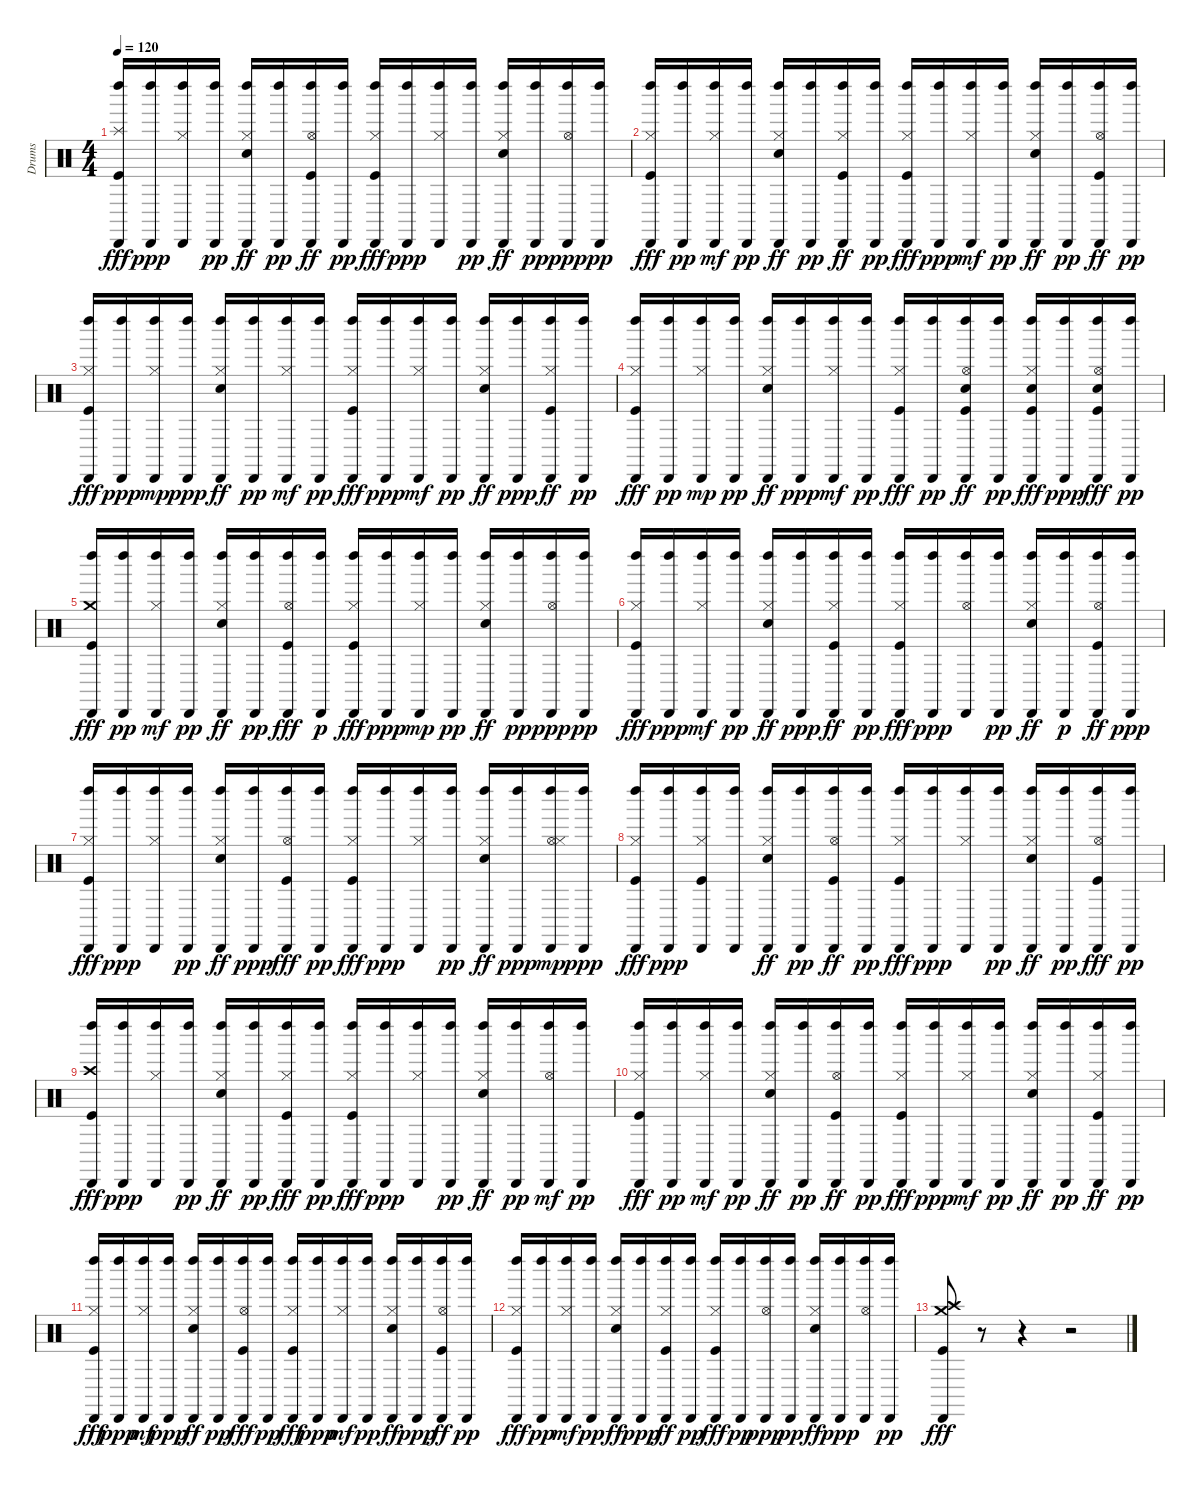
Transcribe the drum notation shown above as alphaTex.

\track ("Drums" "Drums") {instrument percussion}
\staff {score}
\articulation defaults
\ts (4 4)
\tempo 120
\clef neutral
\ks c
("Left Maraca (hit)" "Cabasa (hit)" "Splash (hit)" "Kick (hit)").16{dy fff} ("Left Maraca (hit)" "Cabasa (hit)").16{dy ppp} ("Left Maraca (hit)" "Cabasa (hit)" "Hi-Hat (closed)").16 ("Left Maraca (hit)" "Cabasa (hit)").16{dy pp} ("Left Maraca (hit)" "Cabasa (hit)" "Hi-Hat (closed)" "Electric Snare (hit)").16{dy ff} ("Left Maraca (hit)" "Cabasa (hit)").16{dy pp} ("Left Maraca (hit)" "Cabasa (hit)" "Hi-Hat (open)" "Kick (hit)").16{dy ff} ("Left Maraca (hit)" "Cabasa (hit)").16{dy pp} ("Left Maraca (hit)" "Cabasa (hit)" "Hi-Hat (closed)" "Kick (hit)").16{dy fff} ("Left Maraca (hit)" "Cabasa (hit)").16{dy ppp} ("Left Maraca (hit)" "Cabasa (hit)" "Hi-Hat (closed)").16 ("Left Maraca (hit)" "Cabasa (hit)").16{dy pp} ("Left Maraca (hit)" "Cabasa (hit)" "Hi-Hat (closed)" "Electric Snare (hit)").16{dy ff} ("Left Maraca (hit)" "Cabasa (hit)").16{dy pp} ("Left Maraca (hit)" "Cabasa (hit)" "Hi-Hat (open)").16{dy ppp} ("Left Maraca (hit)" "Cabasa (hit)").16{dy pp} |
("Left Maraca (hit)" "Cabasa (hit)" "Hi-Hat (closed)" "Kick (hit)").16{dy fff} ("Left Maraca (hit)" "Cabasa (hit)").16{dy pp} ("Left Maraca (hit)" "Cabasa (hit)" "Hi-Hat (closed)").16{dy mf} ("Left Maraca (hit)" "Cabasa (hit)").16{dy pp} ("Left Maraca (hit)" "Cabasa (hit)" "Hi-Hat (closed)" "Electric Snare (hit)").16{dy ff} ("Left Maraca (hit)" "Cabasa (hit)").16{dy pp} ("Left Maraca (hit)" "Cabasa (hit)" "Hi-Hat (closed)" "Kick (hit)").16{dy ff} ("Left Maraca (hit)" "Cabasa (hit)").16{dy pp} ("Left Maraca (hit)" "Cabasa (hit)" "Hi-Hat (closed)" "Kick (hit)").16{dy fff} ("Left Maraca (hit)" "Cabasa (hit)").16{dy ppp} ("Left Maraca (hit)" "Cabasa (hit)" "Hi-Hat (closed)").16{dy mf} ("Left Maraca (hit)" "Cabasa (hit)").16{dy pp} ("Left Maraca (hit)" "Cabasa (hit)" "Hi-Hat (closed)" "Electric Snare (hit)").16{dy ff} ("Left Maraca (hit)" "Cabasa (hit)").16{dy pp} ("Left Maraca (hit)" "Cabasa (hit)" "Hi-Hat (open)" "Kick (hit)").16{dy ff} ("Left Maraca (hit)" "Cabasa (hit)").16{dy pp} |
("Left Maraca (hit)" "Cabasa (hit)" "Hi-Hat (closed)" "Kick (hit)").16{dy fff} ("Left Maraca (hit)" "Cabasa (hit)").16{dy ppp} ("Left Maraca (hit)" "Cabasa (hit)" "Hi-Hat (closed)").16{dy mp} ("Left Maraca (hit)" "Cabasa (hit)").16{dy ppp} ("Left Maraca (hit)" "Cabasa (hit)" "Hi-Hat (closed)" "Electric Snare (hit)").16{dy ff} ("Left Maraca (hit)" "Cabasa (hit)").16{dy pp} ("Left Maraca (hit)" "Cabasa (hit)" "Hi-Hat (closed)").16{dy mf} ("Left Maraca (hit)" "Cabasa (hit)").16{dy pp} ("Left Maraca (hit)" "Cabasa (hit)" "Hi-Hat (closed)" "Kick (hit)").16{dy fff} ("Left Maraca (hit)" "Cabasa (hit)").16{dy ppp} ("Left Maraca (hit)" "Cabasa (hit)" "Hi-Hat (closed)").16{dy mf} ("Left Maraca (hit)" "Cabasa (hit)").16{dy pp} ("Left Maraca (hit)" "Cabasa (hit)" "Hi-Hat (closed)" "Electric Snare (hit)").16{dy ff} ("Left Maraca (hit)" "Cabasa (hit)").16{dy ppp} ("Left Maraca (hit)" "Cabasa (hit)" "Hi-Hat (closed)" "Kick (hit)").16{dy ff} ("Left Maraca (hit)" "Cabasa (hit)").16{dy pp} |
("Left Maraca (hit)" "Cabasa (hit)" "Hi-Hat (closed)" "Kick (hit)").16{dy fff} ("Left Maraca (hit)" "Cabasa (hit)").16{dy pp} ("Left Maraca (hit)" "Cabasa (hit)" "Hi-Hat (closed)").16{dy mp} ("Left Maraca (hit)" "Cabasa (hit)").16{dy pp} ("Left Maraca (hit)" "Cabasa (hit)" "Hi-Hat (closed)" "Electric Snare (hit)").16{dy ff} ("Left Maraca (hit)" "Cabasa (hit)").16{dy ppp} ("Left Maraca (hit)" "Cabasa (hit)" "Hi-Hat (closed)").16{dy mf} ("Left Maraca (hit)" "Cabasa (hit)").16{dy pp} ("Left Maraca (hit)" "Cabasa (hit)" "Hi-Hat (closed)" "Kick (hit)").16{dy fff} ("Left Maraca (hit)" "Cabasa (hit)").16{dy pp} ("Left Maraca (hit)" "Cabasa (hit)" "Hi-Hat (open)" "Electric Snare (hit)" "Kick (hit)").16{dy ff} ("Left Maraca (hit)" "Cabasa (hit)").16{dy pp} ("Left Maraca (hit)" "Cabasa (hit)" "Hi-Hat (closed)" "Electric Snare (hit)" "Kick (hit)").16{dy fff} ("Left Maraca (hit)" "Cabasa (hit)").16{dy ppp} ("Left Maraca (hit)" "Cabasa (hit)" "Hi-Hat (open)" "Electric Snare (hit)" "Kick (hit)").16{dy fff} ("Left Maraca (hit)" "Cabasa (hit)").16{dy pp} |
("Left Maraca (hit)" "Cabasa (hit)" "Crash medium (hit)" "Kick (hit)").16{dy fff} ("Left Maraca (hit)" "Cabasa (hit)").16{dy pp} ("Left Maraca (hit)" "Cabasa (hit)" "Hi-Hat (closed)").16{dy mf} ("Left Maraca (hit)" "Cabasa (hit)").16{dy pp} ("Left Maraca (hit)" "Cabasa (hit)" "Hi-Hat (closed)" "Electric Snare (hit)").16{dy ff} ("Left Maraca (hit)" "Cabasa (hit)").16{dy pp} ("Left Maraca (hit)" "Cabasa (hit)" "Hi-Hat (open)" "Kick (hit)").16{dy fff} ("Left Maraca (hit)" "Cabasa (hit)").16{dy p} ("Left Maraca (hit)" "Cabasa (hit)" "Hi-Hat (closed)" "Kick (hit)").16{dy fff} ("Left Maraca (hit)" "Cabasa (hit)").16{dy ppp} ("Left Maraca (hit)" "Cabasa (hit)" "Hi-Hat (closed)").16{dy mp} ("Left Maraca (hit)" "Cabasa (hit)").16{dy pp} ("Left Maraca (hit)" "Cabasa (hit)" "Hi-Hat (closed)" "Electric Snare (hit)").16{dy ff} ("Left Maraca (hit)" "Cabasa (hit)").16{dy pp} ("Left Maraca (hit)" "Cabasa (hit)" "Hi-Hat (open)").16{dy ppp} ("Left Maraca (hit)" "Cabasa (hit)").16{dy pp} |
("Left Maraca (hit)" "Cabasa (hit)" "Hi-Hat (closed)" "Kick (hit)").16{dy fff} ("Left Maraca (hit)" "Cabasa (hit)").16{dy ppp} ("Left Maraca (hit)" "Cabasa (hit)" "Hi-Hat (closed)").16{dy mf} ("Left Maraca (hit)" "Cabasa (hit)").16{dy pp} ("Left Maraca (hit)" "Cabasa (hit)" "Hi-Hat (closed)" "Electric Snare (hit)").16{dy ff} ("Left Maraca (hit)" "Cabasa (hit)").16{dy ppp} ("Left Maraca (hit)" "Cabasa (hit)" "Hi-Hat (closed)" "Kick (hit)").16{dy ff} ("Left Maraca (hit)" "Cabasa (hit)").16{dy pp} ("Left Maraca (hit)" "Cabasa (hit)" "Hi-Hat (closed)" "Kick (hit)").16{dy fff} ("Left Maraca (hit)" "Cabasa (hit)").16{dy ppp} ("Left Maraca (hit)" "Cabasa (hit)" "Hi-Hat (open)").16 ("Left Maraca (hit)" "Cabasa (hit)").16{dy pp} ("Left Maraca (hit)" "Cabasa (hit)" "Hi-Hat (closed)" "Electric Snare (hit)").16{dy ff} ("Left Maraca (hit)" "Cabasa (hit)").16{dy p} ("Left Maraca (hit)" "Cabasa (hit)" "Hi-Hat (open)" "Kick (hit)").16{dy ff} ("Left Maraca (hit)" "Cabasa (hit)").16{dy ppp} |
("Left Maraca (hit)" "Cabasa (hit)" "Hi-Hat (closed)" "Kick (hit)").16{dy fff} ("Left Maraca (hit)" "Cabasa (hit)").16{dy ppp} ("Left Maraca (hit)" "Cabasa (hit)" "Hi-Hat (closed)").16 ("Left Maraca (hit)" "Cabasa (hit)").16{dy pp} ("Left Maraca (hit)" "Cabasa (hit)" "Hi-Hat (closed)" "Electric Snare (hit)").16{dy ff} ("Left Maraca (hit)" "Cabasa (hit)").16{dy ppp} ("Left Maraca (hit)" "Cabasa (hit)" "Hi-Hat (open)" "Kick (hit)").16{dy fff} ("Left Maraca (hit)" "Cabasa (hit)").16{dy pp} ("Left Maraca (hit)" "Cabasa (hit)" "Hi-Hat (closed)" "Kick (hit)").16{dy fff} ("Left Maraca (hit)" "Cabasa (hit)").16{dy ppp} ("Left Maraca (hit)" "Cabasa (hit)" "Hi-Hat (closed)").16 ("Left Maraca (hit)" "Cabasa (hit)").16{dy pp} ("Left Maraca (hit)" "Cabasa (hit)" "Hi-Hat (closed)" "Electric Snare (hit)").16{dy ff} ("Left Maraca (hit)" "Cabasa (hit)").16{dy ppp} ("Left Maraca (hit)" "Cabasa (hit)" "Hi-Hat (open)" "Hi-Hat (closed)").16{dy mp} ("Left Maraca (hit)" "Cabasa (hit)").16{dy ppp} |
("Left Maraca (hit)" "Cabasa (hit)" "Hi-Hat (closed)" "Kick (hit)").16{dy fff} ("Left Maraca (hit)" "Cabasa (hit)").16{dy ppp} ("Left Maraca (hit)" "Cabasa (hit)" "Hi-Hat (closed)" "Kick (hit)").16 ("Left Maraca (hit)" "Cabasa (hit)").16 ("Left Maraca (hit)" "Cabasa (hit)" "Hi-Hat (closed)" "Electric Snare (hit)").16{dy ff} ("Left Maraca (hit)" "Cabasa (hit)").16{dy pp} ("Left Maraca (hit)" "Cabasa (hit)" "Hi-Hat (open)" "Kick (hit)").16{dy ff} ("Left Maraca (hit)" "Cabasa (hit)").16{dy pp} ("Left Maraca (hit)" "Cabasa (hit)" "Hi-Hat (closed)" "Kick (hit)").16{dy fff} ("Left Maraca (hit)" "Cabasa (hit)").16{dy ppp} ("Left Maraca (hit)" "Cabasa (hit)" "Hi-Hat (closed)").16 ("Left Maraca (hit)" "Cabasa (hit)").16{dy pp} ("Left Maraca (hit)" "Cabasa (hit)" "Hi-Hat (closed)" "Electric Snare (hit)").16{dy ff} ("Left Maraca (hit)" "Cabasa (hit)").16{dy pp} ("Left Maraca (hit)" "Cabasa (hit)" "Hi-Hat (open)" "Kick (hit)").16{dy fff} ("Left Maraca (hit)" "Cabasa (hit)").16{dy pp} |
("Left Maraca (hit)" "Cabasa (hit)" "Crash high (hit)" "Kick (hit)").16{dy fff} ("Left Maraca (hit)" "Cabasa (hit)").16{dy ppp} ("Left Maraca (hit)" "Cabasa (hit)" "Hi-Hat (closed)").16 ("Left Maraca (hit)" "Cabasa (hit)").16{dy pp} ("Left Maraca (hit)" "Cabasa (hit)" "Hi-Hat (closed)" "Electric Snare (hit)").16{dy ff} ("Left Maraca (hit)" "Cabasa (hit)").16{dy pp} ("Left Maraca (hit)" "Cabasa (hit)" "Hi-Hat (closed)" "Kick (hit)").16{dy fff} ("Left Maraca (hit)" "Cabasa (hit)").16{dy pp} ("Left Maraca (hit)" "Cabasa (hit)" "Hi-Hat (closed)" "Kick (hit)").16{dy fff} ("Left Maraca (hit)" "Cabasa (hit)").16{dy ppp} ("Left Maraca (hit)" "Cabasa (hit)" "Hi-Hat (closed)").16 ("Left Maraca (hit)" "Cabasa (hit)").16{dy pp} ("Left Maraca (hit)" "Cabasa (hit)" "Hi-Hat (closed)" "Electric Snare (hit)").16{dy ff} ("Left Maraca (hit)" "Cabasa (hit)").16{dy pp} ("Left Maraca (hit)" "Cabasa (hit)" "Hi-Hat (open)").16{dy mf} ("Left Maraca (hit)" "Cabasa (hit)").16{dy pp} |
("Left Maraca (hit)" "Cabasa (hit)" "Hi-Hat (closed)" "Kick (hit)").16{dy fff} ("Left Maraca (hit)" "Cabasa (hit)").16{dy pp} ("Left Maraca (hit)" "Cabasa (hit)" "Hi-Hat (closed)").16{dy mf} ("Left Maraca (hit)" "Cabasa (hit)").16{dy pp} ("Left Maraca (hit)" "Cabasa (hit)" "Hi-Hat (closed)" "Electric Snare (hit)").16{dy ff} ("Left Maraca (hit)" "Cabasa (hit)").16{dy pp} ("Left Maraca (hit)" "Cabasa (hit)" "Hi-Hat (open)" "Kick (hit)").16{dy ff} ("Left Maraca (hit)" "Cabasa (hit)").16{dy pp} ("Left Maraca (hit)" "Cabasa (hit)" "Hi-Hat (closed)" "Kick (hit)").16{dy fff} ("Left Maraca (hit)" "Cabasa (hit)").16{dy ppp} ("Left Maraca (hit)" "Cabasa (hit)" "Hi-Hat (closed)").16{dy mf} ("Left Maraca (hit)" "Cabasa (hit)").16{dy pp} ("Left Maraca (hit)" "Cabasa (hit)" "Hi-Hat (closed)" "Electric Snare (hit)").16{dy ff} ("Left Maraca (hit)" "Cabasa (hit)").16{dy pp} ("Left Maraca (hit)" "Cabasa (hit)" "Hi-Hat (closed)" "Kick (hit)").16{dy ff} ("Left Maraca (hit)" "Cabasa (hit)").16{dy pp} |
("Left Maraca (hit)" "Cabasa (hit)" "Hi-Hat (closed)" "Kick (hit)").16{dy fff} ("Left Maraca (hit)" "Cabasa (hit)").16{dy ppp} ("Left Maraca (hit)" "Cabasa (hit)" "Hi-Hat (closed)").16{dy mf} ("Left Maraca (hit)" "Cabasa (hit)").16{dy ppp} ("Left Maraca (hit)" "Cabasa (hit)" "Hi-Hat (closed)" "Electric Snare (hit)").16{dy ff} ("Left Maraca (hit)" "Cabasa (hit)").16{dy pp} ("Left Maraca (hit)" "Cabasa (hit)" "Hi-Hat (open)" "Kick (hit)").16{dy fff} ("Left Maraca (hit)" "Cabasa (hit)").16{dy pp} ("Left Maraca (hit)" "Cabasa (hit)" "Hi-Hat (closed)" "Kick (hit)").16{dy fff} ("Left Maraca (hit)" "Cabasa (hit)").16{dy ppp} ("Left Maraca (hit)" "Cabasa (hit)" "Hi-Hat (closed)").16{dy mf} ("Left Maraca (hit)" "Cabasa (hit)").16{dy pp} ("Left Maraca (hit)" "Cabasa (hit)" "Hi-Hat (closed)" "Electric Snare (hit)").16{dy ff} ("Left Maraca (hit)" "Cabasa (hit)").16{dy ppp} ("Left Maraca (hit)" "Cabasa (hit)" "Hi-Hat (open)" "Kick (hit)").16{dy ff} ("Left Maraca (hit)" "Cabasa (hit)").16{dy pp} |
("Left Maraca (hit)" "Cabasa (hit)" "Hi-Hat (closed)" "Kick (hit)").16{dy fff} ("Left Maraca (hit)" "Cabasa (hit)").16{dy pp} ("Left Maraca (hit)" "Cabasa (hit)" "Hi-Hat (closed)").16{dy mf} ("Left Maraca (hit)" "Cabasa (hit)").16{dy pp} ("Left Maraca (hit)" "Cabasa (hit)" "Hi-Hat (closed)" "Electric Snare (hit)").16{dy ff} ("Left Maraca (hit)" "Cabasa (hit)").16{dy ppp} ("Left Maraca (hit)" "Cabasa (hit)" "Hi-Hat (closed)" "Kick (hit)").16{dy ff} ("Left Maraca (hit)" "Cabasa (hit)").16{dy pp} ("Left Maraca (hit)" "Cabasa (hit)" "Hi-Hat (closed)" "Kick (hit)").16{dy fff} ("Left Maraca (hit)" "Cabasa (hit)").16{dy pp} ("Left Maraca (hit)" "Cabasa (hit)" "Hi-Hat (open)").16{dy ppp} ("Left Maraca (hit)" "Cabasa (hit)").16{dy pp} ("Left Maraca (hit)" "Cabasa (hit)" "Hi-Hat (closed)" "Electric Snare (hit)").16{dy ff} ("Left Maraca (hit)" "Cabasa (hit)").16{dy ppp} ("Left Maraca (hit)" "Cabasa (hit)" "Hi-Hat (open)").16 ("Left Maraca (hit)" "Cabasa (hit)").16{dy pp} |
("Cabasa (hit)" "Crash high (hit)" "Crash medium (hit)" "Kick (hit)").8{dy fff} r.8 r.4 r.2
